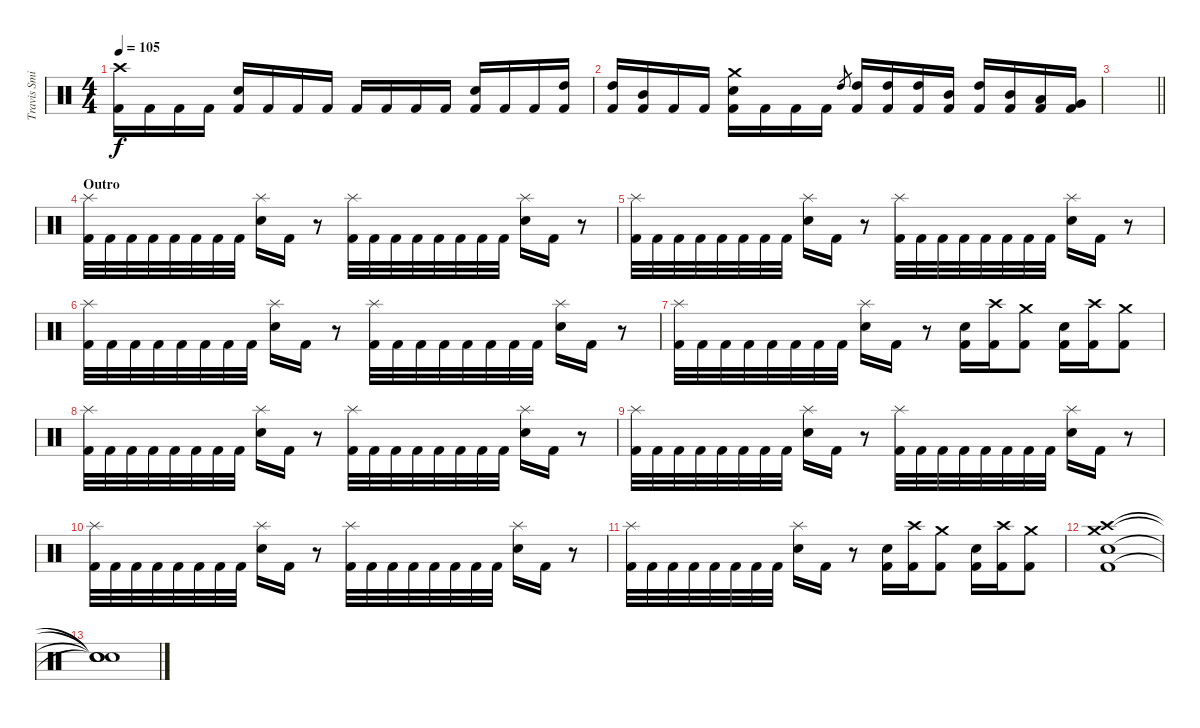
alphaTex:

\track ("Travis Smith" "Travis Smi") {instrument percussion}
\staff {score}
\articulation defaults
\ts (4 4)
\tempo 105
\clef neutral
\ks c
("Crash high (hit)" "Kick (hit) 2").16{dy f} "Kick (hit) 2".16 "Kick (hit) 2".16 "Kick (hit) 2".16 ("Snare (hit) 2" "Kick (hit) 2").16 "Kick (hit) 2".16 "Kick (hit) 2".16 "Kick (hit) 2".16 "Kick (hit) 2".16 "Kick (hit) 2".16 "Kick (hit) 2".16 "Kick (hit) 2".16 ("Snare (hit) 2" "Kick (hit) 2").16 "Kick (hit) 2".16 "Kick (hit) 2".16 ("High Tom (hit)" "Kick (hit) 2").16 |
("High Tom (hit)" "Kick (hit) 2").16 ("Mid Tom (hit)" "Kick (hit) 2").16 "Kick (hit) 2".16 "Kick (hit) 2".16 ("Crash medium (hit)" "Snare (hit) 2" "Kick (hit) 2").16 "Kick (hit) 2".16 "Kick (hit) 2".16 "Kick (hit) 2".16 "High Tom (hit)".8{gr} ("High Tom (hit)" "Kick (hit) 2").16 ("High Tom (hit)" "Kick (hit) 2").16 ("High Tom (hit)" "Kick (hit) 2").16 ("Mid Tom (hit)" "Kick (hit) 2").16 ("High Tom (hit)" "Kick (hit) 2").16 ("Mid Tom (hit)" "Kick (hit) 2").16 ("Low Tom (hit)" "Kick (hit) 2").16 ("Very Low Tom (hit)" "Kick (hit) 2").16 |
\barLineRight lightlight
|
\section ("" "Outro")
("Splash (hit)" "Kick (hit) 2").32 "Kick (hit) 2".32 "Kick (hit) 2".32 "Kick (hit) 2".32 "Kick (hit) 2".32 "Kick (hit) 2".32 "Kick (hit) 2".32 "Kick (hit) 2".32 ("Splash (hit)" "Snare (hit) 2").16 "Kick (hit) 2".16 r.8 ("Splash (hit)" "Kick (hit) 2").32 "Kick (hit) 2".32 "Kick (hit) 2".32 "Kick (hit) 2".32 "Kick (hit) 2".32 "Kick (hit) 2".32 "Kick (hit) 2".32 "Kick (hit) 2".32 ("Splash (hit)" "Snare (hit) 2").16 "Kick (hit) 2".16 r.8 |
("Splash (hit)" "Kick (hit) 2").32 "Kick (hit) 2".32 "Kick (hit) 2".32 "Kick (hit) 2".32 "Kick (hit) 2".32 "Kick (hit) 2".32 "Kick (hit) 2".32 "Kick (hit) 2".32 ("Splash (hit)" "Snare (hit) 2").16 "Kick (hit) 2".16 r.8 ("Splash (hit)" "Kick (hit) 2").32 "Kick (hit) 2".32 "Kick (hit) 2".32 "Kick (hit) 2".32 "Kick (hit) 2".32 "Kick (hit) 2".32 "Kick (hit) 2".32 "Kick (hit) 2".32 ("Splash (hit)" "Snare (hit) 2").16 "Kick (hit) 2".16 r.8 |
("Splash (hit)" "Kick (hit) 2").32 "Kick (hit) 2".32 "Kick (hit) 2".32 "Kick (hit) 2".32 "Kick (hit) 2".32 "Kick (hit) 2".32 "Kick (hit) 2".32 "Kick (hit) 2".32 ("Splash (hit)" "Snare (hit) 2").16 "Kick (hit) 2".16 r.8 ("Splash (hit)" "Kick (hit) 2").32 "Kick (hit) 2".32 "Kick (hit) 2".32 "Kick (hit) 2".32 "Kick (hit) 2".32 "Kick (hit) 2".32 "Kick (hit) 2".32 "Kick (hit) 2".32 ("Splash (hit)" "Snare (hit) 2").16 "Kick (hit) 2".16 r.8 |
("Splash (hit)" "Kick (hit) 2").32 "Kick (hit) 2".32 "Kick (hit) 2".32 "Kick (hit) 2".32 "Kick (hit) 2".32 "Kick (hit) 2".32 "Kick (hit) 2".32 "Kick (hit) 2".32 ("Splash (hit)" "Snare (hit) 2").16 "Kick (hit) 2".16 r.8 ("Snare (hit) 2" "Kick (hit) 2").16 ("Crash high (hit)" "Kick (hit) 2").16 ("Crash medium (hit)" "Kick (hit) 2").8 ("Snare (hit) 2" "Kick (hit) 2").16 ("Crash high (hit)" "Kick (hit) 2").16 ("Crash medium (hit)" "Kick (hit) 2").8 |
("Splash (hit)" "Kick (hit) 2").32 "Kick (hit) 2".32 "Kick (hit) 2".32 "Kick (hit) 2".32 "Kick (hit) 2".32 "Kick (hit) 2".32 "Kick (hit) 2".32 "Kick (hit) 2".32 ("Splash (hit)" "Snare (hit) 2").16 "Kick (hit) 2".16 r.8 ("Splash (hit)" "Kick (hit) 2").32 "Kick (hit) 2".32 "Kick (hit) 2".32 "Kick (hit) 2".32 "Kick (hit) 2".32 "Kick (hit) 2".32 "Kick (hit) 2".32 "Kick (hit) 2".32 ("Splash (hit)" "Snare (hit) 2").16 "Kick (hit) 2".16 r.8 |
("Splash (hit)" "Kick (hit) 2").32 "Kick (hit) 2".32 "Kick (hit) 2".32 "Kick (hit) 2".32 "Kick (hit) 2".32 "Kick (hit) 2".32 "Kick (hit) 2".32 "Kick (hit) 2".32 ("Splash (hit)" "Snare (hit) 2").16 "Kick (hit) 2".16 r.8 ("Splash (hit)" "Kick (hit) 2").32 "Kick (hit) 2".32 "Kick (hit) 2".32 "Kick (hit) 2".32 "Kick (hit) 2".32 "Kick (hit) 2".32 "Kick (hit) 2".32 "Kick (hit) 2".32 ("Splash (hit)" "Snare (hit) 2").16 "Kick (hit) 2".16 r.8 |
("Splash (hit)" "Kick (hit) 2").32 "Kick (hit) 2".32 "Kick (hit) 2".32 "Kick (hit) 2".32 "Kick (hit) 2".32 "Kick (hit) 2".32 "Kick (hit) 2".32 "Kick (hit) 2".32 ("Splash (hit)" "Snare (hit) 2").16 "Kick (hit) 2".16 r.8 ("Splash (hit)" "Kick (hit) 2").32 "Kick (hit) 2".32 "Kick (hit) 2".32 "Kick (hit) 2".32 "Kick (hit) 2".32 "Kick (hit) 2".32 "Kick (hit) 2".32 "Kick (hit) 2".32 ("Splash (hit)" "Snare (hit) 2").16 "Kick (hit) 2".16 r.8 |
("Splash (hit)" "Kick (hit) 2").32 "Kick (hit) 2".32 "Kick (hit) 2".32 "Kick (hit) 2".32 "Kick (hit) 2".32 "Kick (hit) 2".32 "Kick (hit) 2".32 "Kick (hit) 2".32 ("Splash (hit)" "Snare (hit) 2").16 "Kick (hit) 2".16 r.8 ("Snare (hit) 2" "Kick (hit) 2").16 ("Crash high (hit)" "Kick (hit) 2").16 ("Crash medium (hit)" "Kick (hit) 2").8 ("Snare (hit) 2" "Kick (hit) 2").16 ("Crash high (hit)" "Kick (hit) 2").16 ("Crash medium (hit)" "Kick (hit) 2").8 |
("Crash medium (hit)" "Crash high (hit)" "Snare (hit) 2" "Kick (hit) 2").1 |
("Snare (hit)"{t} "Snare (hit)"{t} "Snare (hit)"{t} "Snare (hit)"{t}).1
